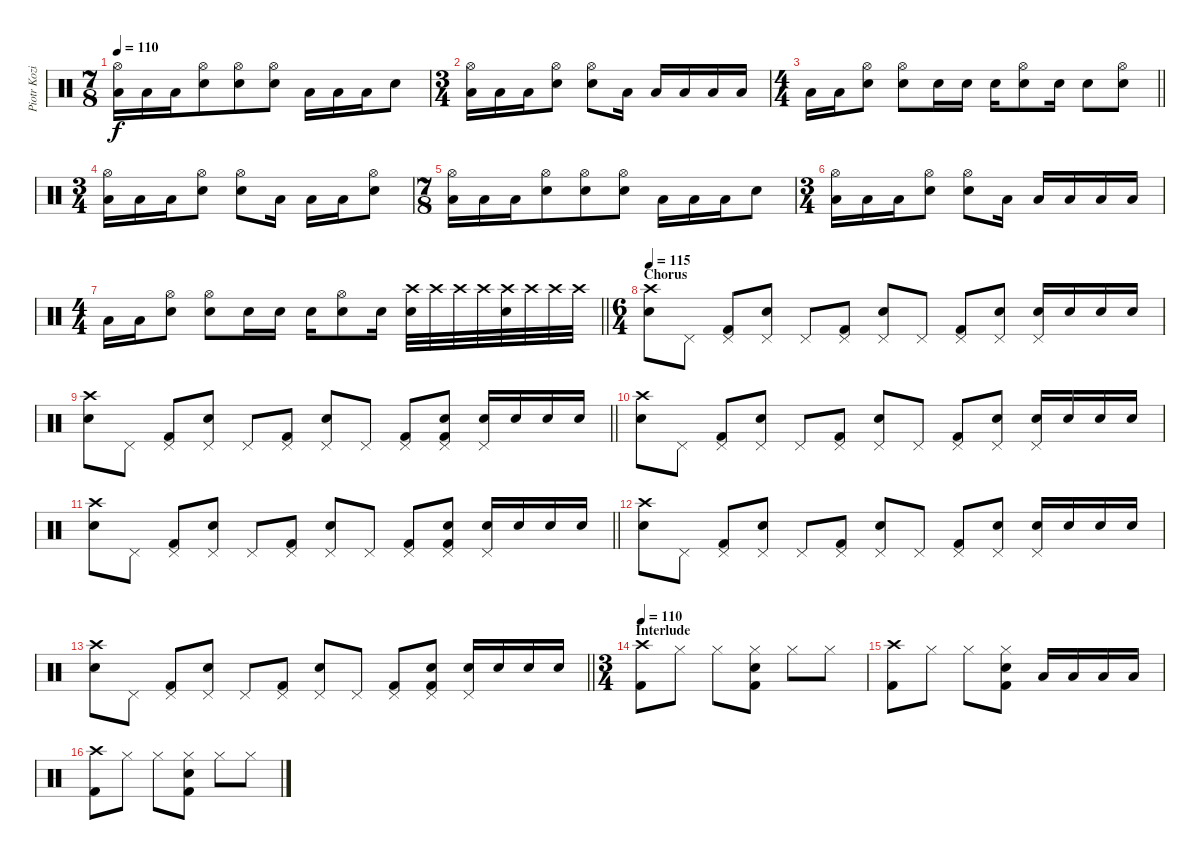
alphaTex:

\track ("Piotr Kozieradzki" "Piotr Kozi") {instrument percussion}
\staff {score}
\articulation defaults
\ts (7 8)
\tempo 110
\clef neutral
\ks c
("Hi-Hat (open)" "Low Tom (hit)").16{dy f} "Low Tom (hit)".16 "Low Tom (hit)".16 ("Hi-Hat (open)" "Electric Snare (hit)").8 ("Hi-Hat (open)" "Electric Snare (hit)").8 ("Hi-Hat (open)" "Electric Snare (hit)").8 "Low Tom (hit)".16 "Low Tom (hit)".16 "Low Tom (hit)".16 "Electric Snare (hit)".8 |
\ts (3 4)
("Hi-Hat (open)" "Low Tom (hit)").16 "Low Tom (hit)".16 "Low Tom (hit)".16 ("Hi-Hat (open)" "Electric Snare (hit)").8 ("Hi-Hat (open)" "Electric Snare (hit)").8 "Low Tom (hit)".16 "Low Tom (hit)".16 "Low Tom (hit)".16 "Low Tom (hit)".16 "Low Tom (hit)".16 |
\ts (4 4)
\barLineRight lightlight "Low Tom (hit)".16 "Low Tom (hit)".16
("Hi-Hat (open)" "Electric Snare (hit)").8 ("Hi-Hat (open)" "Electric Snare (hit)").8 "Electric Snare (hit)".16 "Electric Snare (hit)".16 "Electric Snare (hit)".16 ("Hi-Hat (open)" "Electric Snare (hit)").8 "Electric Snare (hit)".16 "Electric Snare (hit)".8 ("Hi-Hat (open)" "Electric Snare (hit)").8 |
\ts (3 4)
("Hi-Hat (open)" "Low Tom (hit)").16 "Low Tom (hit)".16 "Low Tom (hit)".16 ("Hi-Hat (open)" "Electric Snare (hit)").8 ("Hi-Hat (open)" "Electric Snare (hit)").8 "Low Tom (hit)".16 "Low Tom (hit)".16 "Low Tom (hit)".16 ("Hi-Hat (open)" "Electric Snare (hit)").8 |
\ts (7 8)
("Hi-Hat (open)" "Low Tom (hit)").16 "Low Tom (hit)".16 "Low Tom (hit)".16 ("Hi-Hat (open)" "Electric Snare (hit)").8 ("Hi-Hat (open)" "Electric Snare (hit)").8 ("Hi-Hat (open)" "Electric Snare (hit)").8 "Low Tom (hit)".16 "Low Tom (hit)".16 "Low Tom (hit)".16 "Electric Snare (hit)".8 |
\ts (3 4)
("Hi-Hat (open)" "Low Tom (hit)").16 "Low Tom (hit)".16 "Low Tom (hit)".16 ("Hi-Hat (open)" "Electric Snare (hit)").8 ("Hi-Hat (open)" "Electric Snare (hit)").8 "Low Tom (hit)".16 "Low Tom (hit)".16 "Low Tom (hit)".16 "Low Tom (hit)".16 "Low Tom (hit)".16 |
\ts (4 4)
\barLineRight lightlight "Low Tom (hit)".16 "Low Tom (hit)".16
("Hi-Hat (open)" "Electric Snare (hit)").8 ("Hi-Hat (open)" "Electric Snare (hit)").8 "Electric Snare (hit)".16 "Electric Snare (hit)".16 "Electric Snare (hit)".16 ("Hi-Hat (open)" "Electric Snare (hit)").8 "Electric Snare (hit)".16 ("Crash high (hit)" "Electric Snare (hit)").32 "Crash high (hit)".32 "Crash high (hit)".32 "Crash high (hit)".32 ("Crash high (hit)" "Electric Snare (hit)").32 "Crash high (hit)".32 "Crash high (hit)".32 "Crash high (hit)".32 |
\ts (6 4)
\section ("" "Chorus")
\tempo 115
("Crash high (hit)" "Electric Snare (hit)").8 "Pedal Hi-Hat (hit)".8 ("Pedal Hi-Hat (hit)" "Kick (hit) 2").8 ("Pedal Hi-Hat (hit)" "Electric Snare (hit)").8 "Pedal Hi-Hat (hit)".8 ("Pedal Hi-Hat (hit)" "Kick (hit) 2").8 ("Pedal Hi-Hat (hit)" "Electric Snare (hit)").8 "Pedal Hi-Hat (hit)".8 ("Pedal Hi-Hat (hit)" "Kick (hit) 2").8 ("Pedal Hi-Hat (hit)" "Electric Snare (hit)").8 ("Pedal Hi-Hat (hit)" "Electric Snare (hit)").16 "Electric Snare (hit)".16 "Electric Snare (hit)".16 "Electric Snare (hit)".16 |
\barLineRight lightlight
("Crash high (hit)" "Electric Snare (hit)").8 "Pedal Hi-Hat (hit)".8 ("Pedal Hi-Hat (hit)" "Kick (hit) 2").8 ("Pedal Hi-Hat (hit)" "Electric Snare (hit)").8 "Pedal Hi-Hat (hit)".8 ("Pedal Hi-Hat (hit)" "Kick (hit) 2").8 ("Pedal Hi-Hat (hit)" "Electric Snare (hit)").8 "Pedal Hi-Hat (hit)".8 ("Pedal Hi-Hat (hit)" "Kick (hit) 2").8 ("Pedal Hi-Hat (hit)" "Electric Snare (hit)" "Kick (hit) 2").8 ("Pedal Hi-Hat (hit)" "Electric Snare (hit)").16 "Electric Snare (hit)".16 "Electric Snare (hit)".16 "Electric Snare (hit)".16 |
("Crash high (hit)" "Electric Snare (hit)").8 "Pedal Hi-Hat (hit)".8 ("Pedal Hi-Hat (hit)" "Kick (hit) 2").8 ("Pedal Hi-Hat (hit)" "Electric Snare (hit)").8 "Pedal Hi-Hat (hit)".8 ("Pedal Hi-Hat (hit)" "Kick (hit) 2").8 ("Pedal Hi-Hat (hit)" "Electric Snare (hit)").8 "Pedal Hi-Hat (hit)".8 ("Pedal Hi-Hat (hit)" "Kick (hit) 2").8 ("Pedal Hi-Hat (hit)" "Electric Snare (hit)").8 ("Pedal Hi-Hat (hit)" "Electric Snare (hit)").16 "Electric Snare (hit)".16 "Electric Snare (hit)".16 "Electric Snare (hit)".16 |
\barLineRight lightlight
("Crash high (hit)" "Electric Snare (hit)").8 "Pedal Hi-Hat (hit)".8 ("Pedal Hi-Hat (hit)" "Kick (hit) 2").8 ("Pedal Hi-Hat (hit)" "Electric Snare (hit)").8 "Pedal Hi-Hat (hit)".8 ("Pedal Hi-Hat (hit)" "Kick (hit) 2").8 ("Pedal Hi-Hat (hit)" "Electric Snare (hit)").8 "Pedal Hi-Hat (hit)".8 ("Pedal Hi-Hat (hit)" "Kick (hit) 2").8 ("Pedal Hi-Hat (hit)" "Electric Snare (hit)" "Kick (hit) 2").8 ("Pedal Hi-Hat (hit)" "Electric Snare (hit)").16 "Electric Snare (hit)".16 "Electric Snare (hit)".16 "Electric Snare (hit)".16 |
("Crash high (hit)" "Electric Snare (hit)").8 "Pedal Hi-Hat (hit)".8 ("Pedal Hi-Hat (hit)" "Kick (hit) 2").8 ("Pedal Hi-Hat (hit)" "Electric Snare (hit)").8 "Pedal Hi-Hat (hit)".8 ("Pedal Hi-Hat (hit)" "Kick (hit) 2").8 ("Pedal Hi-Hat (hit)" "Electric Snare (hit)").8 "Pedal Hi-Hat (hit)".8 ("Pedal Hi-Hat (hit)" "Kick (hit) 2").8 ("Pedal Hi-Hat (hit)" "Electric Snare (hit)").8 ("Pedal Hi-Hat (hit)" "Electric Snare (hit)").16 "Electric Snare (hit)".16 "Electric Snare (hit)".16 "Electric Snare (hit)".16 |
\barLineRight lightlight
("Crash high (hit)" "Electric Snare (hit)").8 "Pedal Hi-Hat (hit)".8 ("Pedal Hi-Hat (hit)" "Kick (hit) 2").8 ("Pedal Hi-Hat (hit)" "Electric Snare (hit)").8 "Pedal Hi-Hat (hit)".8 ("Pedal Hi-Hat (hit)" "Kick (hit) 2").8 ("Pedal Hi-Hat (hit)" "Electric Snare (hit)").8 "Pedal Hi-Hat (hit)".8 ("Pedal Hi-Hat (hit)" "Kick (hit) 2").8 ("Pedal Hi-Hat (hit)" "Electric Snare (hit)" "Kick (hit) 2").8 ("Pedal Hi-Hat (hit)" "Electric Snare (hit)").16 "Electric Snare (hit)".16 "Electric Snare (hit)".16 "Electric Snare (hit)".16 |
\ts (3 4)
\section ("" "Interlude")
\tempo 110
("Crash high (hit)" "Kick (hit) 2").8 "Hi-Hat (closed)".8 "Hi-Hat (closed)".8 ("Hi-Hat (closed)" "Electric Snare (hit)" "Kick (hit) 2").8 "Hi-Hat (closed)".8 "Hi-Hat (closed)".8 |
("Crash high (hit)" "Kick (hit) 2").8 "Hi-Hat (closed)".8 "Hi-Hat (closed)".8 ("Hi-Hat (closed)" "Electric Snare (hit)" "Kick (hit) 2").8 "Low Tom (hit)".16 "Low Tom (hit)".16 "Low Tom (hit)".16 "Low Tom (hit)".16 |
("Crash high (hit)" "Kick (hit) 2").8 "Hi-Hat (closed)".8 "Hi-Hat (closed)".8 ("Hi-Hat (closed)" "Electric Snare (hit)" "Kick (hit) 2").8 "Hi-Hat (closed)".8 "Hi-Hat (closed)".8
